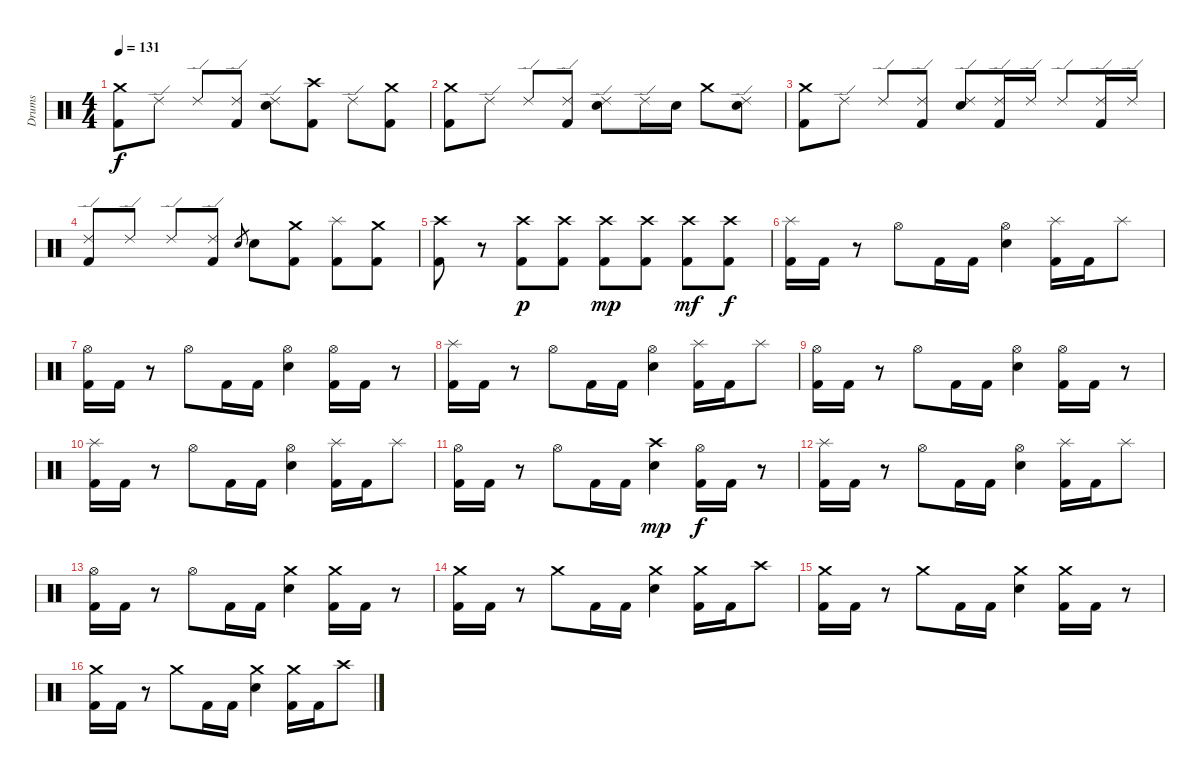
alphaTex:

\track ("Drums" "Drums") {instrument percussion}
\staff {score}
\articulation defaults
\ts (4 4)
\tempo 131
\clef neutral
\ks c
("Crash medium (hit)" "Kick (hit) 2").8{dy f} "Ride (edge) 2".8 "Ride (edge) 2".8 ("Ride (edge) 2" "Kick (hit) 2").8 ("Ride (edge) 2" "Electric Snare (hit)").8 ("Crash high (hit)" "Kick (hit) 2").8 "Ride (edge) 2".8 ("Crash medium (hit)" "Kick (hit) 2").8 |
("Crash medium (hit)" "Kick (hit) 2").8 "Ride (edge) 2".8 "Ride (edge) 2".8 ("Ride (edge) 2" "Kick (hit) 2").8 ("Ride (edge) 2" "Electric Snare (hit)").8 "Ride (edge) 2".16 "Electric Snare (hit)".16 "Crash medium (hit)".8 ("Ride (edge) 2" "Electric Snare (hit)").8 |
("Crash medium (hit)" "Kick (hit) 2").8 "Ride (edge) 2".8 "Ride (edge) 2".8 ("Ride (edge) 2" "Kick (hit) 2").8 ("Ride (edge) 2" "Electric Snare (hit)").8 ("Ride (edge) 2" "Kick (hit) 2").16 "Ride (edge) 2".16 "Ride (edge) 2".8 ("Ride (edge) 2" "Kick (hit) 2").16 "Ride (edge) 2".16 |
("Ride (edge) 2" "Kick (hit) 2").8 "Ride (edge) 2".8 "Ride (edge) 2".8 ("Ride (edge) 2" "Kick (hit) 2").8 "Electric Snare (hit)".8{gr} "Electric Snare (hit)".8 ("Crash medium (hit)" "Kick (hit) 2").8 ("Splash (hit)" "Kick (hit) 2").8 ("Crash medium (hit)" "Kick (hit) 2").8 |
("Crash high (hit)" "Kick (hit) 2").8 r.8 ("Crash high (hit)" "Kick (hit) 2").8{dy p} ("Crash high (hit)" "Kick (hit) 2").8 ("Crash high (hit)" "Kick (hit) 2").8{dy mp} ("Crash high (hit)" "Kick (hit) 2").8 ("Crash high (hit)" "Kick (hit) 2").8{dy mf} ("Crash high (hit)" "Kick (hit) 2").8{dy f} |
("Splash (hit)" "Kick (hit) 2").16 "Kick (hit) 2".16 r.8 "Hi-Hat (open)".8 "Kick (hit) 2".16 "Kick (hit) 2".16 ("Hi-Hat (open)" "Electric Snare (hit)").4 ("Splash (hit)" "Kick (hit) 2").16 "Kick (hit) 2".16 "Splash (hit)".8 |
("Hi-Hat (open)" "Kick (hit) 2").16 "Kick (hit) 2".16 r.8 "Hi-Hat (open)".8 "Kick (hit) 2".16 "Kick (hit) 2".16 ("Hi-Hat (open)" "Electric Snare (hit)").4 ("Hi-Hat (open)" "Kick (hit) 2").16 "Kick (hit) 2".16 r.8 |
("Splash (hit)" "Kick (hit) 2").16 "Kick (hit) 2".16 r.8 "Hi-Hat (open)".8 "Kick (hit) 2".16 "Kick (hit) 2".16 ("Hi-Hat (open)" "Electric Snare (hit)").4 ("Splash (hit)" "Kick (hit) 2").16 "Kick (hit) 2".16 "Splash (hit)".8 |
("Hi-Hat (open)" "Kick (hit) 2").16 "Kick (hit) 2".16 r.8 "Hi-Hat (open)".8 "Kick (hit) 2".16 "Kick (hit) 2".16 ("Hi-Hat (open)" "Electric Snare (hit)").4 ("Hi-Hat (open)" "Kick (hit) 2").16 "Kick (hit) 2".16 r.8 |
("Splash (hit)" "Kick (hit) 2").16 "Kick (hit) 2".16 r.8 "Hi-Hat (open)".8 "Kick (hit) 2".16 "Kick (hit) 2".16 ("Hi-Hat (open)" "Electric Snare (hit)").4 ("Splash (hit)" "Kick (hit) 2").16 "Kick (hit) 2".16 "Splash (hit)".8 |
("Hi-Hat (open)" "Kick (hit) 2").16 "Kick (hit) 2".16 r.8 "Hi-Hat (open)".8 "Kick (hit) 2".16 "Kick (hit) 2".16 ("Crash high (hit)" "Electric Snare (hit)").4{dy mp} ("Hi-Hat (open)" "Kick (hit) 2").16{dy f} "Kick (hit) 2".16 r.8 |
("Splash (hit)" "Kick (hit) 2").16 "Kick (hit) 2".16 r.8 "Hi-Hat (open)".8 "Kick (hit) 2".16 "Kick (hit) 2".16 ("Hi-Hat (open)" "Electric Snare (hit)").4 ("Splash (hit)" "Kick (hit) 2").16 "Kick (hit) 2".16 "Splash (hit)".8 |
("Hi-Hat (open)" "Kick (hit) 2").16 "Kick (hit) 2".16 r.8 "Hi-Hat (open)".8 "Kick (hit) 2".16 "Kick (hit) 2".16 ("Crash medium (hit)" "Electric Snare (hit)").4 ("Crash medium (hit)" "Kick (hit) 2").16 "Kick (hit) 2".16 r.8 |
("Crash medium (hit)" "Kick (hit) 2").16 "Kick (hit) 2".16 r.8 "Crash medium (hit)".8 "Kick (hit) 2".16 "Kick (hit) 2".16 ("Crash medium (hit)" "Electric Snare (hit)").4 ("Crash medium (hit)" "Kick (hit) 2").16 "Kick (hit) 2".16 "Crash high (hit)".8 |
("Crash medium (hit)" "Kick (hit) 2").16 "Kick (hit) 2".16 r.8 "Crash medium (hit)".8 "Kick (hit) 2".16 "Kick (hit) 2".16 ("Crash medium (hit)" "Electric Snare (hit)").4 ("Crash medium (hit)" "Kick (hit) 2").16 "Kick (hit) 2".16 r.8 |
("Crash medium (hit)" "Kick (hit) 2").16 "Kick (hit) 2".16 r.8 "Crash medium (hit)".8 "Kick (hit) 2".16 "Kick (hit) 2".16 ("Crash medium (hit)" "Electric Snare (hit)").4 ("Crash medium (hit)" "Kick (hit) 2").16 "Kick (hit) 2".16 "Crash high (hit)".8
